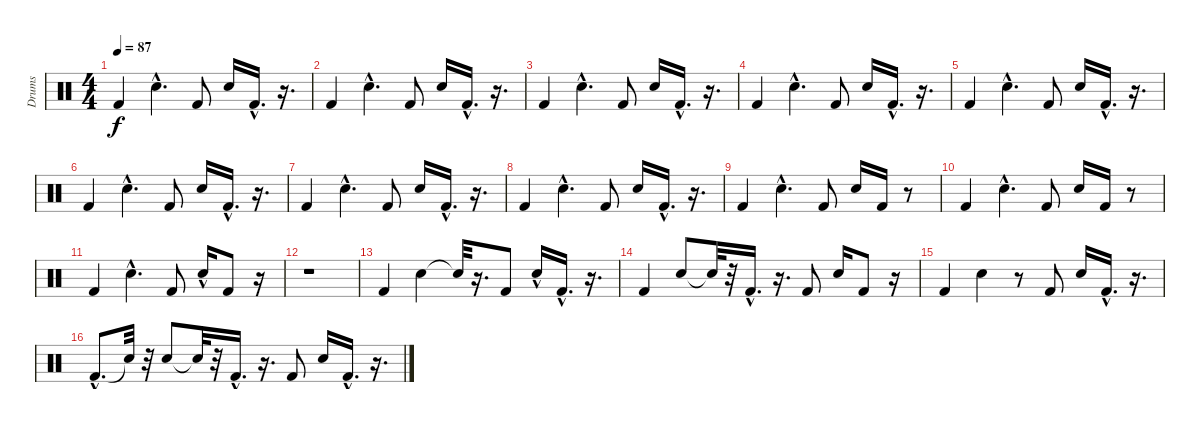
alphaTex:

\track ("Drums" "Drums") {instrument percussion}
\staff {score}
\articulation defaults
\ts (4 4)
\tempo 87
\clef neutral
\ks c "Kick (hit) 2".4{dy f} "Electric Snare (hit)"{hac}.4{d} "Kick (hit) 2".8 "Electric Snare (hit)".16 "Kick (hit) 2"{hac}.16{d}
r.16{d} |
"Kick (hit) 2".4 "Electric Snare (hit)"{hac}.4{d} "Kick (hit) 2".8 "Electric Snare (hit)".16 "Kick (hit) 2"{hac}.16{d} r.16{d} |
"Kick (hit) 2".4 "Electric Snare (hit)"{hac}.4{d} "Kick (hit) 2".8 "Electric Snare (hit)".16 "Kick (hit) 2"{hac}.16{d} r.16{d} |
"Kick (hit) 2".4 "Electric Snare (hit)"{hac}.4{d} "Kick (hit) 2".8 "Electric Snare (hit)".16 "Kick (hit) 2"{hac}.16{d} r.16{d} |
"Kick (hit) 2".4 "Electric Snare (hit)"{hac}.4{d} "Kick (hit) 2".8 "Electric Snare (hit)".16 "Kick (hit) 2"{hac}.16{d} r.16{d} |
"Kick (hit) 2".4 "Electric Snare (hit)"{hac}.4{d} "Kick (hit) 2".8 "Electric Snare (hit)".16 "Kick (hit) 2"{hac}.16{d} r.16{d} |
"Kick (hit) 2".4 "Electric Snare (hit)"{hac}.4{d} "Kick (hit) 2".8 "Electric Snare (hit)".16 "Kick (hit) 2"{hac}.16{d} r.16{d} |
"Kick (hit) 2".4 "Electric Snare (hit)"{hac}.4{d} "Kick (hit) 2".8 "Electric Snare (hit)".16 "Kick (hit) 2"{hac}.16{d} r.16{d} |
"Kick (hit) 2".4 "Electric Snare (hit)"{hac}.4{d} "Kick (hit) 2".8 "Electric Snare (hit)".16 "Kick (hit) 2".16 r.8 |
"Kick (hit) 2".4 "Electric Snare (hit)"{hac}.4{d} "Kick (hit) 2".8 "Electric Snare (hit)".16 "Kick (hit) 2".16 r.8 |
"Kick (hit) 2".4 "Electric Snare (hit)"{hac}.4{d} "Kick (hit) 2".8 "Electric Snare (hit)"{hac}.16 "Kick (hit) 2".8 r.16 |
r.1 |
"Kick (hit) 2".4 "Electric Snare (hit)".4 "Snare (hit)"{t}.32 r.16{d} "Kick (hit) 2".8 "Electric Snare (hit)"{hac}.16 "Kick (hit) 2"{hac}.16{d} r.16{d} |
"Kick (hit) 2".4 "Electric Snare (hit)".8 "Snare (hit)"{t}.32 r.32 "Kick (hit) 2"{hac}.16{d} r.16{d} "Kick (hit) 2".8 "Electric Snare (hit)".16 "Kick (hit) 2".8 r.16 |
"Kick (hit) 2".4 "Electric Snare (hit)".4 r.8 "Kick (hit) 2".8 "Electric Snare (hit)".16 "Kick (hit) 2"{hac}.16{d} r.16{d} |
"Kick (hit) 2"{hac}.8{d} "Snare (hit)"{t}.32 r.32 "Electric Snare (hit)".8 "Snare (hit)"{t}.32 r.32 "Kick (hit) 2"{hac}.16{d} r.16{d} "Kick (hit) 2".8 "Electric Snare (hit)".16 "Kick (hit) 2"{hac}.16{d} r.16{d}
